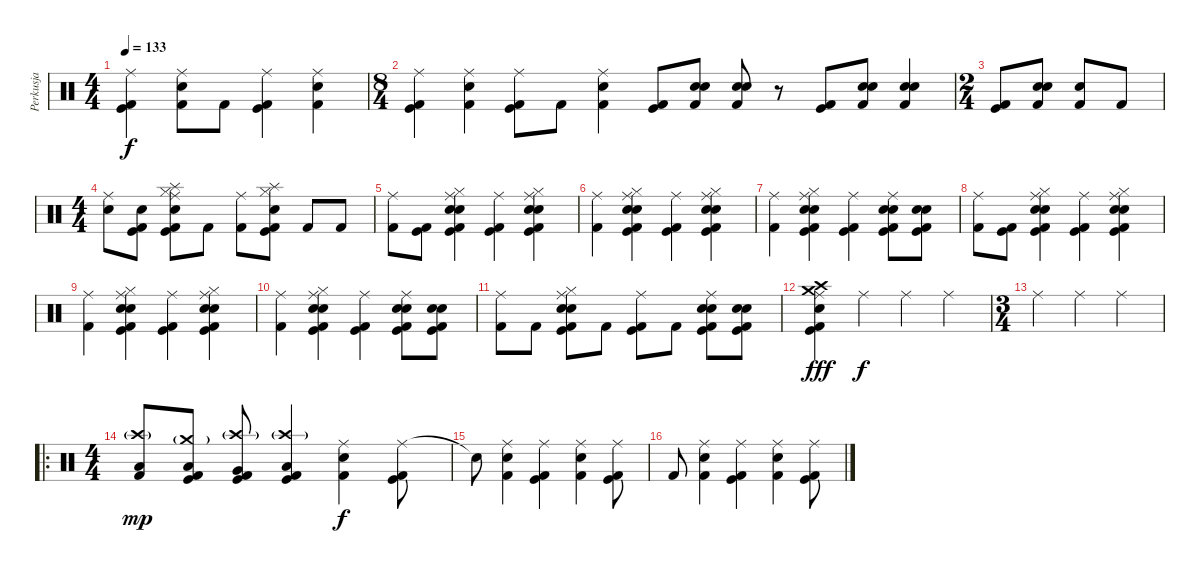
\track ("Perkusja" "Perkusja") {instrument percussion}
\staff {score}
\articulation defaults
\ts (4 4)
\tempo 133
\clef neutral
\ks c
("Ride (middle)" "Kick (hit)" "Kick (hit) 2").4{dy f} ("Ride (middle)" "Electric Snare (hit)" "Kick (hit) 2").8 "Kick (hit) 2".8 ("Ride (middle)" "Kick (hit)" "Kick (hit) 2").4 ("Ride (middle)" "Electric Snare (hit)" "Kick (hit) 2").4 |
\ts (8 4)
("Ride (middle)" "Kick (hit)" "Kick (hit) 2").4 ("Ride (middle)" "Electric Snare (hit)" "Kick (hit) 2").4 ("Ride (middle)" "Kick (hit)" "Kick (hit) 2").8 "Kick (hit) 2".8 ("Ride (middle)" "Electric Snare (hit)" "Kick (hit) 2").4 ("Kick (hit)" "Kick (hit) 2").8 ("Electric Snare (hit)" "Electric Snare (hit)" "Kick (hit) 2").8 ("Electric Snare (hit)" "Electric Snare (hit)" "Kick (hit) 2").8 r.8 ("Kick (hit)" "Kick (hit) 2").8 ("Electric Snare (hit)" "Electric Snare (hit)" "Kick (hit) 2").8 ("Electric Snare (hit)" "Electric Snare (hit)" "Kick (hit) 2").4 |
\ts (2 4)
("Kick (hit) 2" "Kick (hit)").8 ("Electric Snare (hit)" "Electric Snare (hit)" "Kick (hit) 2").8 ("Electric Snare (hit)" "Kick (hit) 2").8 "Kick (hit) 2".8 |
\ts (4 4)
("Ride (middle)" "Electric Snare (hit)").8 ("Electric Snare (hit)" "Kick (hit)" "Kick (hit) 2").8 ("Ride (middle)" "Splash (hit)" "Hi-Hat (closed)" "Kick (hit)" "Snare (hit) 2" "Kick (hit) 2").8 "Kick (hit) 2".8 ("Ride (middle)" "Kick (hit) 2").8 ("Splash (hit)" "Hi-Hat (closed)" "Kick (hit)" "Snare (hit) 2" "Kick (hit) 2").8 "Kick (hit) 2".8 "Kick (hit) 2".8 |
("Ride (middle)" "Kick (hit) 2").8 ("Kick (hit)" "Kick (hit) 2").8 ("Ride (middle)" "Hi-Hat (closed)" "Electric Snare (hit)" "Kick (hit)" "Snare (hit) 2" "Kick (hit) 2").4 ("Ride (middle)" "Kick (hit) 2" "Kick (hit)").4 ("Ride (middle)" "Hi-Hat (closed)" "Electric Snare (hit)" "Kick (hit)" "Snare (hit) 2" "Kick (hit) 2").4 |
("Ride (middle)" "Kick (hit) 2").4 ("Ride (middle)" "Hi-Hat (closed)" "Electric Snare (hit)" "Kick (hit)" "Snare (hit) 2" "Kick (hit) 2").4 ("Ride (middle)" "Kick (hit) 2" "Kick (hit)").4 ("Ride (middle)" "Hi-Hat (closed)" "Electric Snare (hit)" "Kick (hit)" "Snare (hit) 2" "Kick (hit) 2").4 |
("Ride (middle)" "Kick (hit) 2").4 ("Ride (middle)" "Hi-Hat (closed)" "Electric Snare (hit)" "Kick (hit)" "Snare (hit) 2" "Kick (hit) 2").4 ("Ride (middle)" "Kick (hit) 2" "Kick (hit)").4 ("Ride (middle)" "Electric Snare (hit)" "Kick (hit)" "Snare (hit) 2" "Kick (hit) 2").8 ("Electric Snare (hit)" "Kick (hit)" "Snare (hit) 2" "Kick (hit) 2").8 |
("Ride (middle)" "Kick (hit) 2").8 ("Kick (hit)" "Kick (hit) 2").8 ("Ride (middle)" "Hi-Hat (closed)" "Electric Snare (hit)" "Kick (hit)" "Snare (hit) 2" "Kick (hit) 2").4 ("Ride (middle)" "Kick (hit) 2" "Kick (hit)").4 ("Ride (middle)" "Hi-Hat (closed)" "Electric Snare (hit)" "Kick (hit)" "Snare (hit) 2" "Kick (hit) 2").4 |
("Ride (middle)" "Kick (hit) 2").4 ("Ride (middle)" "Hi-Hat (closed)" "Electric Snare (hit)" "Kick (hit)" "Snare (hit) 2" "Kick (hit) 2").4 ("Ride (middle)" "Kick (hit) 2" "Kick (hit)").4 ("Ride (middle)" "Hi-Hat (closed)" "Electric Snare (hit)" "Kick (hit)" "Snare (hit) 2" "Kick (hit) 2").4 |
("Ride (middle)" "Kick (hit) 2").4 ("Ride (middle)" "Hi-Hat (closed)" "Electric Snare (hit)" "Kick (hit)" "Snare (hit) 2" "Kick (hit) 2").4 ("Ride (middle)" "Kick (hit) 2" "Kick (hit)").4 ("Ride (middle)" "Electric Snare (hit)" "Kick (hit)" "Snare (hit) 2" "Kick (hit) 2").8 ("Electric Snare (hit)" "Kick (hit)" "Snare (hit) 2" "Kick (hit) 2").8 |
("Ride (middle)" "Kick (hit) 2").8 "Kick (hit) 2".8 ("Ride (middle)" "Hi-Hat (closed)" "Electric Snare (hit)" "Kick (hit)" "Snare (hit) 2" "Kick (hit) 2").8 "Kick (hit) 2".8 ("Ride (middle)" "Kick (hit)" "Kick (hit) 2").8 "Kick (hit) 2".8 ("Ride (middle)" "Electric Snare (hit)" "Kick (hit)" "Snare (hit) 2" "Kick (hit) 2").8 ("Electric Snare (hit)" "Kick (hit)" "Snare (hit) 2" "Kick (hit) 2").8 |
("Electric Snare (hit)" "Crash medium (hit)" "Crash high (hit)" "Kick (hit) 2" "Kick (hit)" "Ride (middle)").4{dy fff} "Ride (middle)".4{dy f} "Ride (middle)".4 "Ride (middle)".4 |
\ts (3 4)
"Ride (middle)".4 "Ride (middle)".4 "Ride (middle)".4 |
\ro
\ts (4 4)
("Crash high (hit)"{g} "Low Floor Tom (hit)" "Kick (hit) 2").8{dy mp} ("Crash medium (hit)"{g} "Low Tom (hit)" "Kick (hit)" "Kick (hit) 2").8 ("Crash high (hit)"{g} "Very Low Tom (hit)" "Kick (hit)" "Kick (hit) 2").8 ("Crash high (hit)"{g} "Low Floor Tom (hit)" "Kick (hit)" "Kick (hit) 2").4 ("Ride (middle)" "Electric Snare (hit)" "Kick (hit) 2").4{dy f} ("Ride (middle)" "Kick (hit)" "Kick (hit) 2").8 |
"Electric Snare (hit)"{t}.8 ("Ride (middle)" "Electric Snare (hit)" "Kick (hit) 2").4 ("Ride (middle)" "Kick (hit)" "Kick (hit) 2").4 ("Ride (middle)" "Electric Snare (hit)" "Kick (hit) 2").4 ("Ride (middle)" "Kick (hit)" "Kick (hit) 2").8 |
"Kick (hit) 2".8 ("Ride (middle)" "Electric Snare (hit)" "Kick (hit) 2").4 ("Ride (middle)" "Kick (hit)" "Kick (hit) 2").4 ("Ride (middle)" "Electric Snare (hit)" "Kick (hit) 2").4 ("Ride (middle)" "Kick (hit)" "Kick (hit) 2").8
